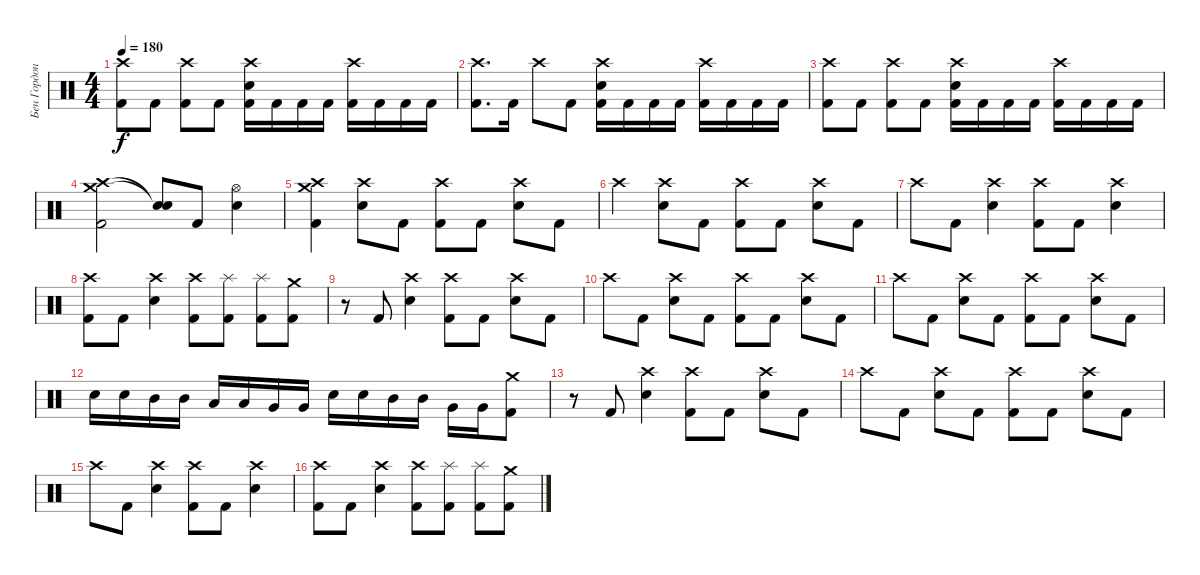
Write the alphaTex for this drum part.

\track ("Бен Гордон" "Бен Гордон") {instrument percussion}
\staff {score}
\articulation defaults
\ts (4 4)
\tempo 180
\clef neutral
\ks c
("Crash high (hit)" "Kick (hit) 2").8{dy f} "Kick (hit) 2".8 ("Crash high (hit)" "Kick (hit) 2").8 "Kick (hit) 2".8 ("Crash high (hit)" "Electric Snare (hit)" "Kick (hit) 2").16 "Kick (hit) 2".16 "Kick (hit) 2".16 "Kick (hit) 2".16 ("Crash high (hit)" "Kick (hit) 2").16 "Kick (hit) 2".16 "Kick (hit) 2".16 "Kick (hit) 2".16 |
("Crash high (hit)" "Kick (hit) 2").8{d} "Kick (hit) 2".16 "Crash high (hit)".8 "Kick (hit) 2".8 ("Crash high (hit)" "Electric Snare (hit)" "Kick (hit) 2").16 "Kick (hit) 2".16 "Kick (hit) 2".16 "Kick (hit) 2".16 ("Crash high (hit)" "Kick (hit) 2").16 "Kick (hit) 2".16 "Kick (hit) 2".16 "Kick (hit) 2".16 |
("Crash high (hit)" "Kick (hit) 2").8 "Kick (hit) 2".8 ("Crash high (hit)" "Kick (hit) 2").8 "Kick (hit) 2".8 ("Crash high (hit)" "Electric Snare (hit)" "Kick (hit) 2").16 "Kick (hit) 2".16 "Kick (hit) 2".16 "Kick (hit) 2".16 ("Crash high (hit)" "Kick (hit) 2").16 "Kick (hit) 2".16 "Kick (hit) 2".16 "Kick (hit) 2".16 |
("Crash medium (hit)" "Crash high (hit)" "Kick (hit) 2").2 ("Snare (hit)"{t} "Snare (hit)"{t}).8 "Kick (hit) 2".8 ("Hi-Hat (open)" "Electric Snare (hit)").4 |
("Crash high (hit)" "Crash medium (hit)" "Kick (hit) 2").4 ("Crash high (hit)" "Electric Snare (hit)").8 "Kick (hit) 2".8 ("Crash high (hit)" "Kick (hit) 2").8 "Kick (hit) 2".8 ("Crash high (hit)" "Electric Snare (hit)").8 "Kick (hit) 2".8 |
"Crash high (hit)".4 ("Crash high (hit)" "Electric Snare (hit)").8 "Kick (hit) 2".8 ("Crash high (hit)" "Kick (hit) 2").8 "Kick (hit) 2".8 ("Crash high (hit)" "Electric Snare (hit)").8 "Kick (hit) 2".8 |
"Crash high (hit)".8 "Kick (hit) 2".8 ("Crash high (hit)" "Electric Snare (hit)").4 ("Crash high (hit)" "Kick (hit) 2").8 "Kick (hit) 2".8 ("Crash high (hit)" "Electric Snare (hit)").4 |
("Crash high (hit)" "Kick (hit) 2").8 "Kick (hit) 2".8 ("Crash high (hit)" "Electric Snare (hit)").4 ("Crash high (hit)" "Kick (hit) 2").8 ("Splash (hit)" "Kick (hit) 2").8 ("Splash (hit)" "Kick (hit) 2").8 ("Crash medium (hit)" "Kick (hit) 2").8 |
r.8 "Kick (hit) 2".8 ("Crash high (hit)" "Electric Snare (hit)").4 ("Crash high (hit)" "Kick (hit) 2").8 "Kick (hit) 2".8 ("Crash high (hit)" "Electric Snare (hit)").8 "Kick (hit) 2".8 |
"Crash high (hit)".8 "Kick (hit) 2".8 ("Crash high (hit)" "Electric Snare (hit)").8 "Kick (hit) 2".8 ("Crash high (hit)" "Kick (hit) 2").8 "Kick (hit) 2".8 ("Crash high (hit)" "Electric Snare (hit)").8 "Kick (hit) 2".8 |
"Crash high (hit)".8 "Kick (hit) 2".8 ("Crash high (hit)" "Electric Snare (hit)").8 "Kick (hit) 2".8 ("Crash high (hit)" "Kick (hit) 2").8 "Kick (hit) 2".8 ("Crash high (hit)" "Electric Snare (hit)").8 "Kick (hit) 2".8 |
"Electric Snare (hit)".16 "Electric Snare (hit)".16 "Mid Tom (hit)".16 "Mid Tom (hit)".16 "Low Tom (hit)".16 "Low Tom (hit)".16 "Very Low Tom (hit)".16 "Very Low Tom (hit)".16 "Electric Snare (hit)".16 "Electric Snare (hit)".16 "Mid Tom (hit)".16 "Mid Tom (hit)".16 "Very Low Tom (hit)".16 "Very Low Tom (hit)".16 ("Crash medium (hit)" "Kick (hit) 2").8 |
r.8 "Kick (hit) 2".8 ("Crash high (hit)" "Electric Snare (hit)").4 ("Crash high (hit)" "Kick (hit) 2").8 "Kick (hit) 2".8 ("Crash high (hit)" "Electric Snare (hit)").8 "Kick (hit) 2".8 |
"Crash high (hit)".8 "Kick (hit) 2".8 ("Crash high (hit)" "Electric Snare (hit)").8 "Kick (hit) 2".8 ("Crash high (hit)" "Kick (hit) 2").8 "Kick (hit) 2".8 ("Crash high (hit)" "Electric Snare (hit)").8 "Kick (hit) 2".8 |
"Crash high (hit)".8 "Kick (hit) 2".8 ("Crash high (hit)" "Electric Snare (hit)").4 ("Crash high (hit)" "Kick (hit) 2").8 "Kick (hit) 2".8 ("Crash high (hit)" "Electric Snare (hit)").4 |
("Crash high (hit)" "Kick (hit) 2").8 "Kick (hit) 2".8 ("Crash high (hit)" "Electric Snare (hit)").4 ("Crash high (hit)" "Kick (hit) 2").8 ("Splash (hit)" "Kick (hit) 2").8 ("Splash (hit)" "Kick (hit) 2").8 ("Crash medium (hit)" "Kick (hit) 2").8
